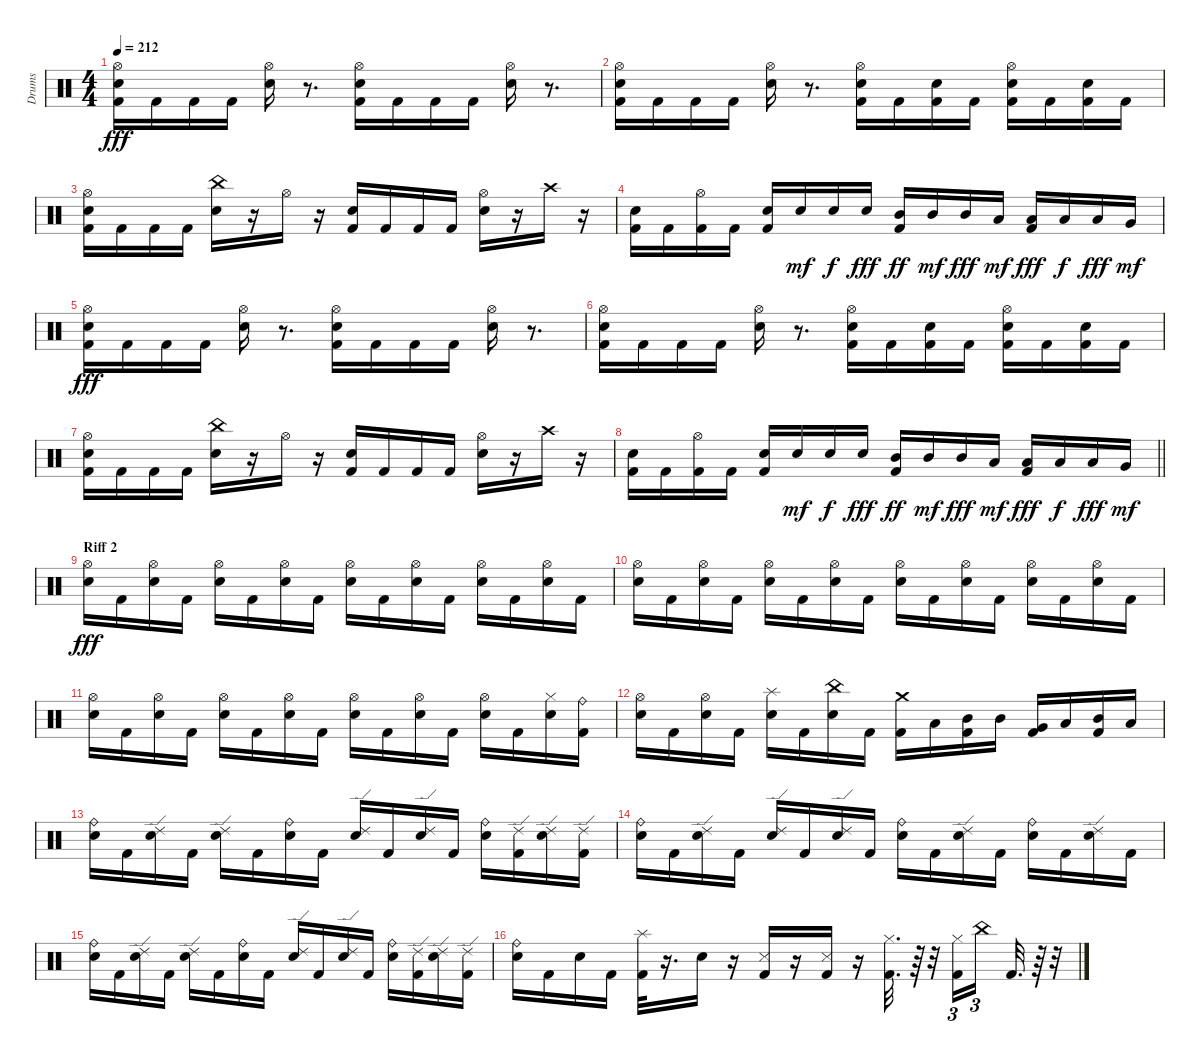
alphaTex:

\track ("Drums" "Drums") {instrument percussion}
\staff {score}
\articulation defaults
\ts (4 4)
\tempo 212
\clef neutral
\ks c
("Kick (hit) 2" "Snare (hit) 2" "Hi-Hat (open)").16{dy fff} "Kick (hit) 2".16 "Kick (hit) 2".16 "Kick (hit) 2".16 ("Snare (hit) 2" "Hi-Hat (open)").16 r.8{d} ("Kick (hit) 2" "Snare (hit) 2" "Hi-Hat (open)").16 "Kick (hit) 2".16 "Kick (hit) 2".16 "Kick (hit) 2".16 ("Snare (hit) 2" "Hi-Hat (open)").16 r.8{d} |
("Kick (hit) 2" "Snare (hit) 2" "Hi-Hat (open)").16 "Kick (hit) 2".16 "Kick (hit) 2".16 "Kick (hit) 2".16 ("Snare (hit) 2" "Hi-Hat (open)").16 r.8{d} ("Kick (hit) 2" "Snare (hit) 2" "Hi-Hat (open)").16 "Kick (hit) 2".16 ("Kick (hit) 2" "Snare (hit) 2").16 "Kick (hit) 2".16 ("Kick (hit) 2" "Snare (hit) 2" "Hi-Hat (open)").16 "Kick (hit) 2".16 ("Kick (hit) 2" "Snare (hit) 2").16 "Kick (hit) 2".16 |
("Kick (hit) 2" "Snare (hit) 2" "Hi-Hat (open)").16 "Kick (hit) 2".16 "Kick (hit) 2".16 "Kick (hit) 2".16 ("Snare (hit) 2" "China (hit)").16 r.16 "Hi-Hat (open)".16 r.16 ("Kick (hit) 2" "Snare (hit) 2").16 "Kick (hit) 2".16 "Kick (hit) 2".16 "Kick (hit) 2".16 ("Snare (hit) 2" "Hi-Hat (open)").16 r.16 "Crash high (hit)".16 r.16 |
("Kick (hit) 2" "Snare (hit) 2").16 "Kick (hit) 2".16 ("Kick (hit) 2" "Hi-Hat (open)").16 "Kick (hit) 2".16 ("Kick (hit) 2" "Snare (hit) 2").16 "Snare (hit) 2".16{dy mf} "Snare (hit) 2".16{dy f} "Snare (hit) 2".16{dy fff} ("Kick (hit) 2" "Mid Tom (hit)").16{dy ff} "Mid Tom (hit)".16{dy mf} "Mid Tom (hit)".16{dy fff} "Low Tom (hit)".16{dy mf} ("Kick (hit) 2" "Low Tom (hit)").16{dy fff} "Low Tom (hit)".16{dy f} "Low Tom (hit)".16{dy fff} "Very Low Tom (hit)".16{dy mf} |
("Kick (hit) 2" "Snare (hit) 2" "Hi-Hat (open)").16{dy fff} "Kick (hit) 2".16 "Kick (hit) 2".16 "Kick (hit) 2".16 ("Snare (hit) 2" "Hi-Hat (open)").16 r.8{d} ("Kick (hit) 2" "Snare (hit) 2" "Hi-Hat (open)").16 "Kick (hit) 2".16 "Kick (hit) 2".16 "Kick (hit) 2".16 ("Snare (hit) 2" "Hi-Hat (open)").16 r.8{d} |
("Kick (hit) 2" "Snare (hit) 2" "Hi-Hat (open)").16 "Kick (hit) 2".16 "Kick (hit) 2".16 "Kick (hit) 2".16 ("Snare (hit) 2" "Hi-Hat (open)").16 r.8{d} ("Kick (hit) 2" "Snare (hit) 2" "Hi-Hat (open)").16 "Kick (hit) 2".16 ("Kick (hit) 2" "Snare (hit) 2").16 "Kick (hit) 2".16 ("Kick (hit) 2" "Snare (hit) 2" "Hi-Hat (open)").16 "Kick (hit) 2".16 ("Kick (hit) 2" "Snare (hit) 2").16 "Kick (hit) 2".16 |
("Kick (hit) 2" "Snare (hit) 2" "Hi-Hat (open)").16 "Kick (hit) 2".16 "Kick (hit) 2".16 "Kick (hit) 2".16 ("Snare (hit) 2" "China (hit)").16 r.16 "Hi-Hat (open)".16 r.16 ("Kick (hit) 2" "Snare (hit) 2").16 "Kick (hit) 2".16 "Kick (hit) 2".16 "Kick (hit) 2".16 ("Snare (hit) 2" "Hi-Hat (open)").16 r.16 "Crash high (hit)".16 r.16 |
\barLineRight lightlight
("Kick (hit) 2" "Snare (hit) 2").16 "Kick (hit) 2".16 ("Kick (hit) 2" "Hi-Hat (open)").16 "Kick (hit) 2".16 ("Kick (hit) 2" "Snare (hit) 2").16 "Snare (hit) 2".16{dy mf} "Snare (hit) 2".16{dy f} "Snare (hit) 2".16{dy fff} ("Kick (hit) 2" "Mid Tom (hit)").16{dy ff} "Mid Tom (hit)".16{dy mf} "Mid Tom (hit)".16{dy fff} "Low Tom (hit)".16{dy mf} ("Kick (hit) 2" "Low Tom (hit)").16{dy fff} "Low Tom (hit)".16{dy f} "Low Tom (hit)".16{dy fff} "Very Low Tom (hit)".16{dy mf} |
\section ("" "Riff 2")
("Snare (hit) 2" "Hi-Hat (open)").16{dy fff} "Kick (hit) 2".16 ("Snare (hit) 2" "Hi-Hat (open)").16 "Kick (hit) 2".16 ("Snare (hit) 2" "Hi-Hat (open)").16 "Kick (hit) 2".16 ("Snare (hit) 2" "Hi-Hat (open)").16 "Kick (hit) 2".16 ("Snare (hit) 2" "Hi-Hat (open)").16 "Kick (hit) 2".16 ("Snare (hit) 2" "Hi-Hat (open)").16 "Kick (hit) 2".16 ("Snare (hit) 2" "Hi-Hat (open)").16 "Kick (hit) 2".16 ("Snare (hit) 2" "Hi-Hat (open)").16 "Kick (hit) 2".16 |
("Snare (hit) 2" "Hi-Hat (open)").16 "Kick (hit) 2".16 ("Snare (hit) 2" "Hi-Hat (open)").16 "Kick (hit) 2".16 ("Snare (hit) 2" "Hi-Hat (open)").16 "Kick (hit) 2".16 ("Snare (hit) 2" "Hi-Hat (open)").16 "Kick (hit) 2".16 ("Snare (hit) 2" "Hi-Hat (open)").16 "Kick (hit) 2".16 ("Snare (hit) 2" "Hi-Hat (open)").16 "Kick (hit) 2".16 ("Snare (hit) 2" "Hi-Hat (open)").16 "Kick (hit) 2".16 ("Snare (hit) 2" "Hi-Hat (open)").16 "Kick (hit) 2".16 |
("Snare (hit) 2" "Hi-Hat (open)").16 "Kick (hit) 2".16 ("Snare (hit) 2" "Hi-Hat (open)").16 "Kick (hit) 2".16 ("Snare (hit) 2" "Hi-Hat (open)").16 "Kick (hit) 2".16 ("Snare (hit) 2" "Hi-Hat (open)").16 "Kick (hit) 2".16 ("Snare (hit) 2" "Hi-Hat (open)").16 "Kick (hit) 2".16 ("Snare (hit) 2" "Hi-Hat (open)").16 "Kick (hit) 2".16 ("Snare (hit) 2" "Hi-Hat (open)").16 "Kick (hit) 2".16 ("Snare (hit) 2" "Hi-Hat (closed)").16 ("Kick (hit) 2" "Ride (bell)").16 |
("Snare (hit) 2" "Hi-Hat (open)").16 "Kick (hit) 2".16 ("Snare (hit) 2" "Hi-Hat (open)").16 "Kick (hit) 2".16 ("Snare (hit) 2" "Splash (hit)").16 "Kick (hit) 2".16 ("Snare (hit) 2" "China (hit)").16 "Kick (hit) 2".16 ("Kick (hit) 2" "Crash medium (hit)").16 "Low Tom (hit)".16 ("Kick (hit) 2" "Mid Tom (hit)").16 "Mid Tom (hit)".16 ("Kick (hit) 2" "Very Low Tom (hit)").16 "Low Tom (hit)".16 ("Kick (hit) 2" "Mid Tom (hit)").16 "Low Floor Tom (hit)".16 |
("Snare (hit) 2" "Ride (bell)").16 "Kick (hit) 2".16 ("Snare (hit) 2" "Ride (edge) 2").16 "Kick (hit) 2".16 ("Snare (hit) 2" "Ride (edge) 2").16 "Kick (hit) 2".16 ("Snare (hit) 2" "Ride (bell)").16 "Kick (hit) 2".16 ("Snare (hit) 2" "Ride (edge) 2").16 "Kick (hit) 2".16 ("Snare (hit) 2" "Ride (edge) 2").16 "Kick (hit) 2".16 ("Snare (hit) 2" "Ride (bell)").16 ("Kick (hit) 2" "Ride (edge) 2").16 ("Snare (hit) 2" "Ride (edge) 2").16 ("Kick (hit) 2" "Ride (edge) 2").16 |
("Snare (hit) 2" "Ride (bell)").16 "Kick (hit) 2".16 ("Snare (hit) 2" "Ride (edge) 2").16 "Kick (hit) 2".16 ("Snare (hit) 2" "Ride (edge) 2").16 "Kick (hit) 2".16 ("Snare (hit) 2" "Ride (edge) 2").16 "Kick (hit) 2".16 ("Snare (hit) 2" "Ride (bell)").16 "Kick (hit) 2".16 ("Snare (hit) 2" "Ride (edge) 2").16 "Kick (hit) 2".16 ("Snare (hit) 2" "Ride (bell)").16 "Kick (hit) 2".16 ("Snare (hit) 2" "Ride (edge) 2").16 "Kick (hit) 2".16 |
("Snare (hit) 2" "Ride (bell)").16 "Kick (hit) 2".16 ("Snare (hit) 2" "Ride (edge) 2").16 "Kick (hit) 2".16 ("Snare (hit) 2" "Ride (edge) 2").16 "Kick (hit) 2".16 ("Snare (hit) 2" "Ride (bell)").16 "Kick (hit) 2".16 ("Snare (hit) 2" "Ride (edge) 2").16 "Kick (hit) 2".16 ("Snare (hit) 2" "Ride (edge) 2").16 "Kick (hit) 2".16 ("Snare (hit) 2" "Ride (bell)").16 ("Kick (hit) 2" "Ride (edge) 2").16 ("Snare (hit) 2" "Ride (edge) 2").16 ("Kick (hit) 2" "Ride (edge) 2").16 |
("Snare (hit) 2" "Ride (bell)").16 "Kick (hit) 2".16 "Snare (hit) 2".16 "Kick (hit) 2".16 ("Kick (hit) 2" "Splash (hit)").32 r.16{d} "Snare (hit) 2".16 r.16 ("Kick (hit) 2" "Snare (side stick) 3").16 r.16 ("Kick (hit) 2" "Snare (side stick) 3").16 r.16 ("Kick (hit) 2" "Hi-Hat (closed)").32{d} r.64 r.32 ("Kick (hit) 2" "Hi-Hat (closed)").16{tu (3 2)} "China (hit)".16{tu (3 2) beam splitsecondary} "Kick (hit) 2".32{d} r.64 r.32
